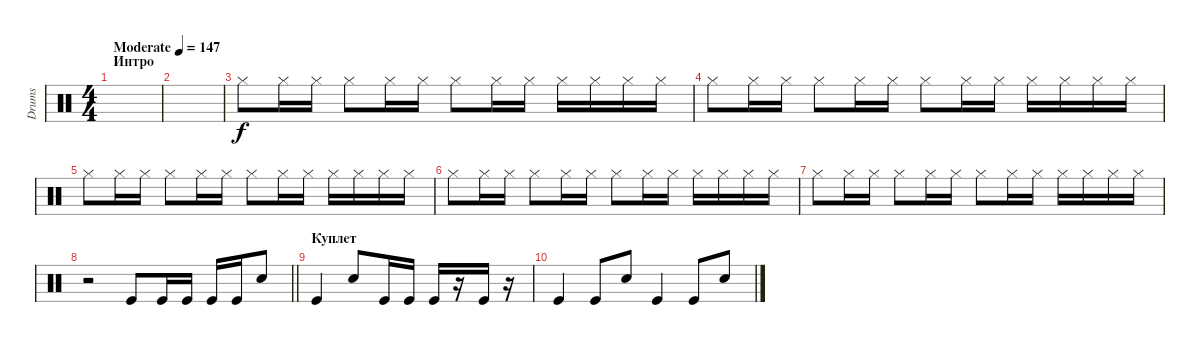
\track ("Drums" "Drums") {instrument percussion}
\staff {score}
\articulation defaults
\ts (4 4)
\section ("" "Интро")
\tempo (147 "Moderate")
\clef neutral
\ks c
|
|
"Hi-Hat (closed)".8 "Hi-Hat (closed)".16 "Hi-Hat (closed)".16 "Hi-Hat (closed)".8 "Hi-Hat (closed)".16 "Hi-Hat (closed)".16 "Hi-Hat (closed)".8 "Hi-Hat (closed)".16 "Hi-Hat (closed)".16 "Hi-Hat (closed)".16 "Hi-Hat (closed)".16 "Hi-Hat (closed)".16 "Hi-Hat (closed)".16 |
"Hi-Hat (closed)".8 "Hi-Hat (closed)".16 "Hi-Hat (closed)".16 "Hi-Hat (closed)".8 "Hi-Hat (closed)".16 "Hi-Hat (closed)".16 "Hi-Hat (closed)".8 "Hi-Hat (closed)".16 "Hi-Hat (closed)".16 "Hi-Hat (closed)".16 "Hi-Hat (closed)".16 "Hi-Hat (closed)".16 "Hi-Hat (closed)".16 |
"Hi-Hat (closed)".8 "Hi-Hat (closed)".16 "Hi-Hat (closed)".16 "Hi-Hat (closed)".8 "Hi-Hat (closed)".16 "Hi-Hat (closed)".16 "Hi-Hat (closed)".8 "Hi-Hat (closed)".16 "Hi-Hat (closed)".16 "Hi-Hat (closed)".16 "Hi-Hat (closed)".16 "Hi-Hat (closed)".16 "Hi-Hat (closed)".16 |
"Hi-Hat (closed)".8 "Hi-Hat (closed)".16 "Hi-Hat (closed)".16 "Hi-Hat (closed)".8 "Hi-Hat (closed)".16 "Hi-Hat (closed)".16 "Hi-Hat (closed)".8 "Hi-Hat (closed)".16 "Hi-Hat (closed)".16 "Hi-Hat (closed)".16 "Hi-Hat (closed)".16 "Hi-Hat (closed)".16 "Hi-Hat (closed)".16 |
"Hi-Hat (closed)".8 "Hi-Hat (closed)".16 "Hi-Hat (closed)".16 "Hi-Hat (closed)".8 "Hi-Hat (closed)".16 "Hi-Hat (closed)".16 "Hi-Hat (closed)".8 "Hi-Hat (closed)".16 "Hi-Hat (closed)".16 "Hi-Hat (closed)".16 "Hi-Hat (closed)".16 "Hi-Hat (closed)".16 "Hi-Hat (closed)".16 |
\barLineRight lightlight
r.2 "Kick (hit)".8 "Kick (hit)".16 "Kick (hit)".16 "Kick (hit)".16 "Kick (hit)".16 "Snare (hit) 2".8 |
\section ("" "Куплет")
"Kick (hit)".4 "Snare (hit) 2".8 "Kick (hit)".16 "Kick (hit)".16 "Kick (hit)".16 r.16 "Kick (hit)".16 r.16 |
"Kick (hit)".4 "Kick (hit)".8 "Snare (hit) 2".8 "Kick (hit)".4 "Kick (hit)".8 "Snare (hit) 2".8
